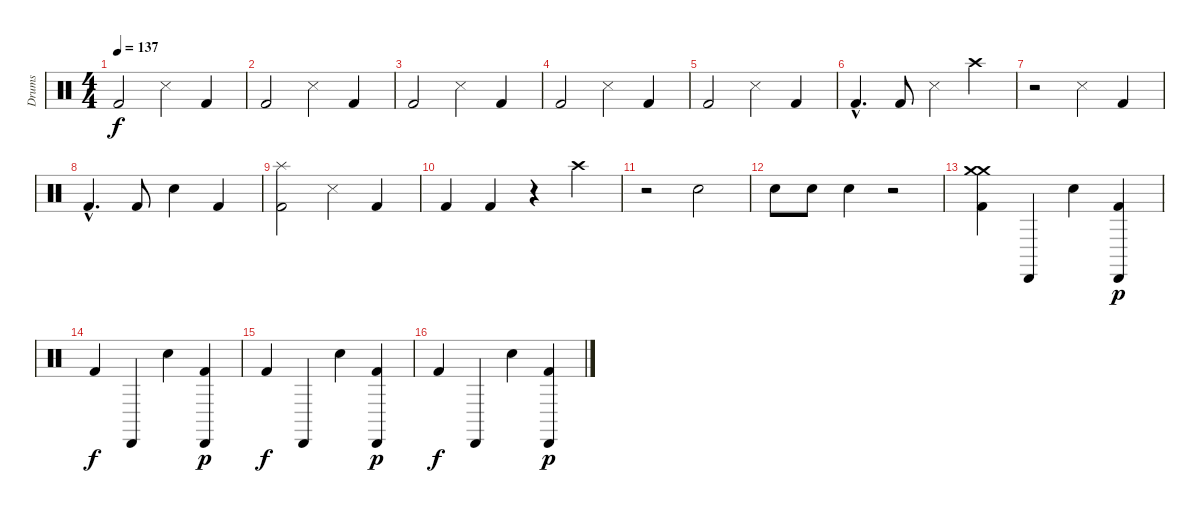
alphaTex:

\track ("Drums" "Drums") {instrument percussion}
\staff {score}
\articulation defaults
\ts (4 4)
\tempo 137
\clef neutral
\ks c "Kick (hit) 2".2{dy f} "Snare (side stick) 3".4 "Kick (hit) 2".4
|
"Kick (hit) 2".2 "Snare (side stick) 3".4 "Kick (hit) 2".4 |
"Kick (hit) 2".2 "Snare (side stick) 3".4 "Kick (hit) 2".4 |
"Kick (hit) 2".2 "Snare (side stick) 3".4 "Kick (hit) 2".4 |
"Kick (hit) 2".2 "Snare (side stick) 3".4 "Kick (hit) 2".4 |
"Kick (hit) 2"{hac}.4{d} "Kick (hit) 2".8 "Snare (side stick) 3".4 "Crash high (hit)".4 |
r.2 "Snare (side stick) 3".4 "Kick (hit) 2".4 |
"Kick (hit) 2"{hac}.4{d} "Kick (hit) 2".8 "Electric Snare (hit)".4 "Kick (hit) 2".4 |
("Splash (hit)" "Kick (hit) 2").2 "Snare (side stick) 3".4 "Kick (hit) 2".4 |
"Kick (hit) 2".4 "Kick (hit) 2".4 r.4 "Crash high (hit)".4 |
r.2 "Electric Snare (hit)".2 |
"Electric Snare (hit)".8 "Electric Snare (hit)".8 "Electric Snare (hit)".4 r.2 |
("Crash medium (hit)" "Crash medium (hit)" "Kick (hit) 2").4 "Cabasa (hit)".4 "Electric Snare (hit)".4 ("Cabasa (hit)" "Kick (hit) 2").4{dy p} |
"Kick (hit) 2".4{dy f} "Cabasa (hit)".4 "Electric Snare (hit)".4 ("Cabasa (hit)" "Kick (hit) 2").4{dy p} |
"Kick (hit) 2".4{dy f} "Cabasa (hit)".4 "Electric Snare (hit)".4 ("Cabasa (hit)" "Kick (hit) 2").4{dy p} |
"Kick (hit) 2".4{dy f} "Cabasa (hit)".4 "Electric Snare (hit)".4 ("Cabasa (hit)" "Kick (hit) 2").4{dy p}
